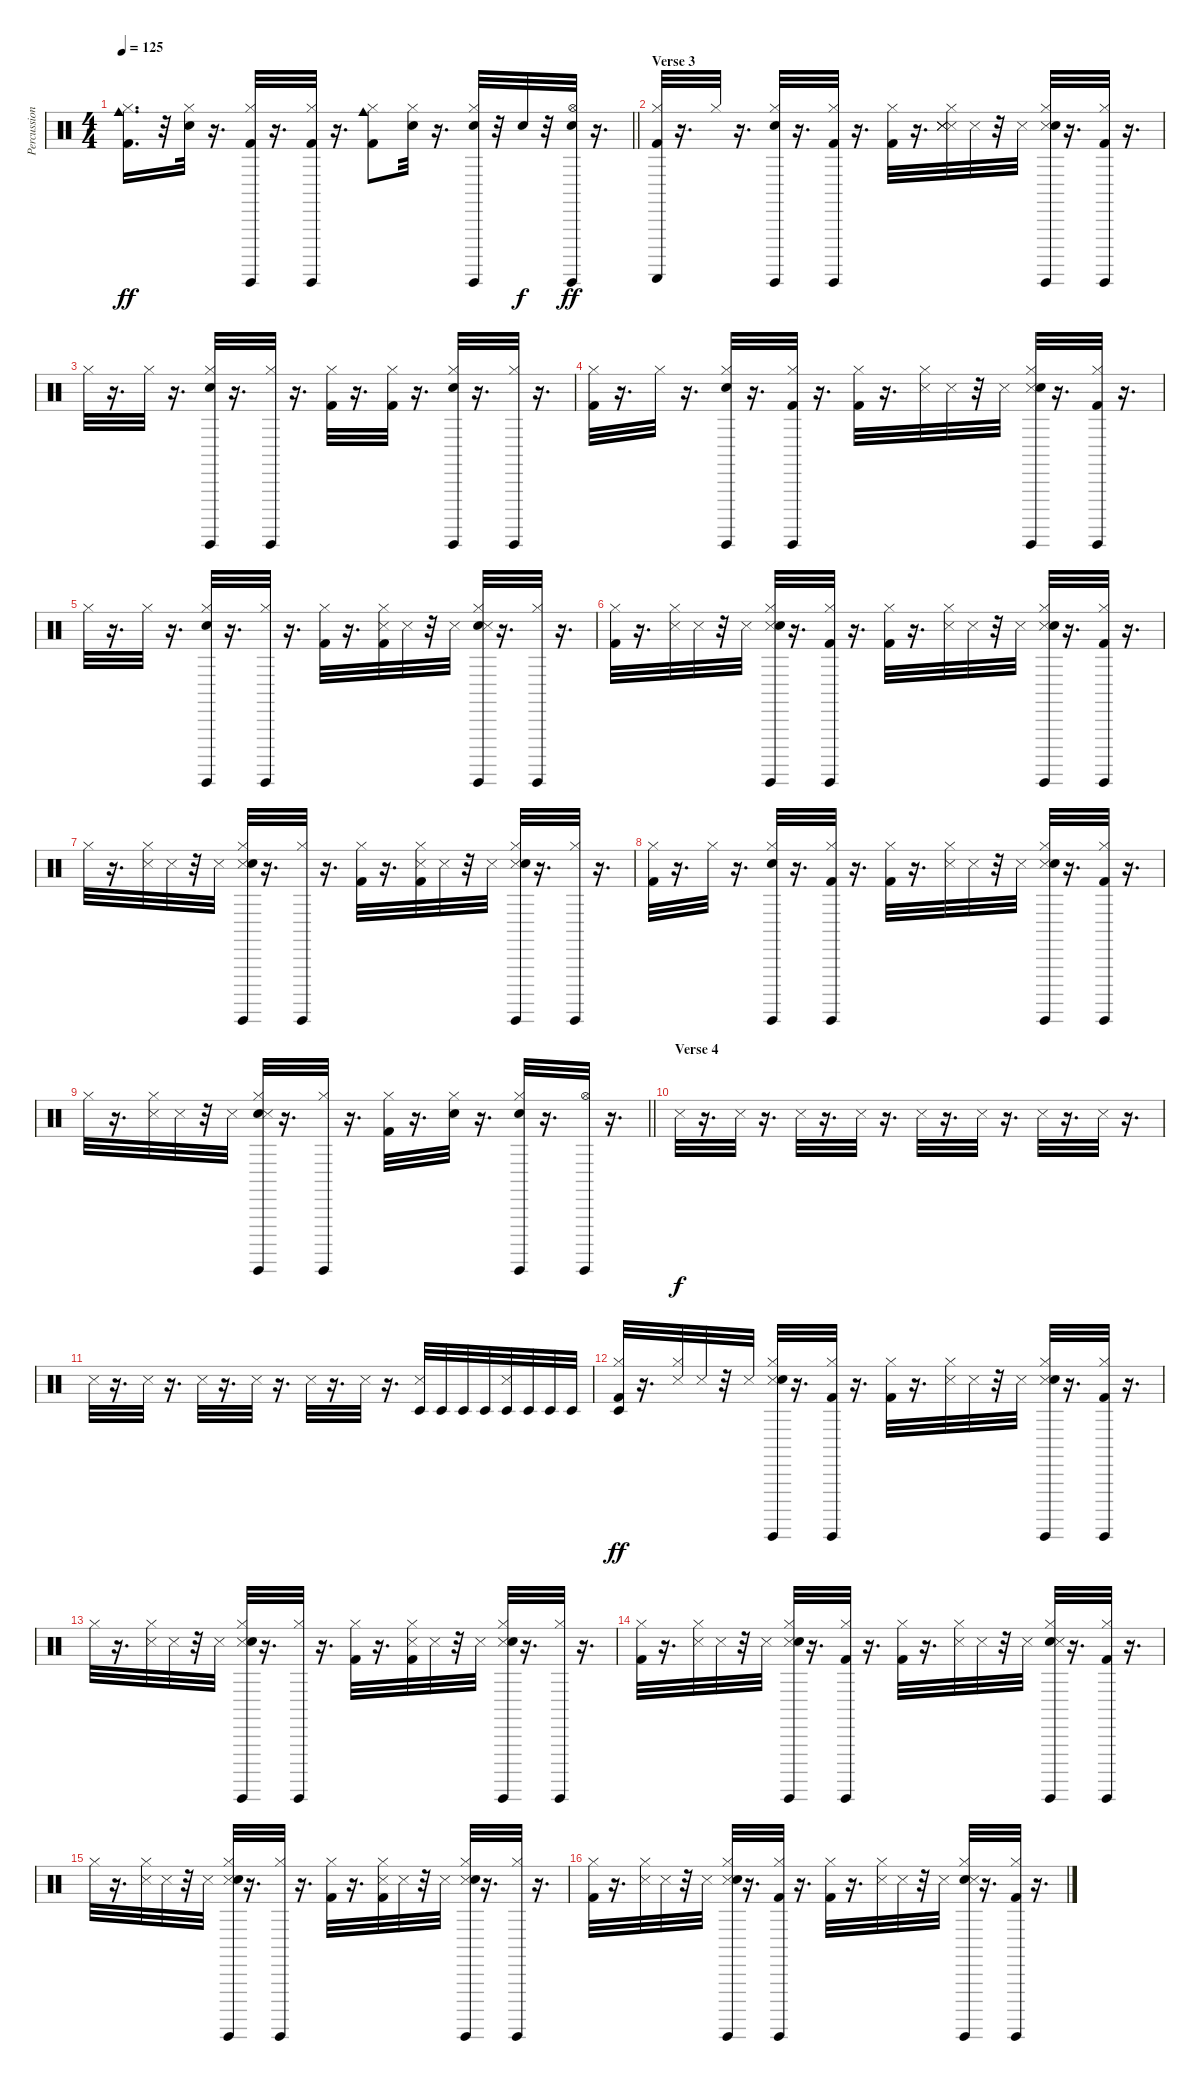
\track ("Percussion" "Percussion") {instrument percussion}
\staff {score}
\articulation defaults
\ts (4 4)
\tempo 125
\clef neutral
\barLineRight lightlight
\ks c
("Kick (hit) 2" "Hi-Hat (closed)" "Cowbell medium (hit)").16{d dy ff} r.32 ("Snare (hit) 2" "Hi-Hat (closed)").32 r.16{d} ("Kick (hit) 2" "Guiro (hit)" "Hi-Hat (closed)").32 r.16{d} ("Hi-Hat (closed)" "Kick (hit) 2" "Guiro (hit)").32 r.16{d} ("Cowbell medium (hit)" "Kick (hit) 2" "Hi-Hat (closed)").8 ("Snare (hit) 2" "Hi-Hat (closed)").32 r.16{d} ("Electric Snare (hit)" "Guiro (hit)" "Hi-Hat (closed)").32 r.32 "Electric Snare (hit)".32{dy f} r.32 ("Electric Snare (hit)" "Hi-Hat (open)" "Guiro (hit)").32{dy ff} r.16{d} |
\section ("" "Verse 3")
("Guiro (scrap-return)" "Hi-Hat (closed)" "Kick (hit) 2").32 r.16{d} "Hi-Hat (closed)".32 r.16{d} ("Guiro (hit)" "Hi-Hat (closed)" "Snare (hit) 2").32 r.16{d} ("Guiro (hit)" "Hi-Hat (closed)" "Kick (hit) 2").32 r.16{d} ("Hi-Hat (closed)" "Kick (hit) 2").32 r.16{d} ("Hi-Hat (closed)" "Snare (side stick) 3" "Snare (side stick) 3" "Snare (side stick) 3" "Snare (side stick) 3").32 "Snare (side stick) 3".32 r.32 "Snare (side stick) 3".32 ("Snare (side stick) 3" "Guiro (hit)" "Hi-Hat (closed)" "Snare (hit) 2").32 r.16{d} ("Guiro (hit)" "Hi-Hat (closed)" "Kick (hit) 2").32 r.16{d} |
"Hi-Hat (closed)".32 r.16{d} "Hi-Hat (closed)".32 r.16{d} ("Snare (hit) 2" "Guiro (hit)" "Hi-Hat (closed)").32 r.16{d} ("Guiro (hit)" "Hi-Hat (closed)").32 r.16{d} ("Hi-Hat (closed)" "Kick (hit) 2").32 r.16{d} ("Hi-Hat (closed)" "Kick (hit) 2").32 r.16{d} ("Guiro (hit)" "Hi-Hat (closed)" "Snare (hit) 2").32 r.16{d} ("Guiro (hit)" "Hi-Hat (closed)").32 r.16{d} |
("Hi-Hat (closed)" "Kick (hit) 2").32 r.16{d} "Hi-Hat (closed)".32 r.16{d} ("Guiro (hit)" "Hi-Hat (closed)" "Snare (hit) 2").32 r.16{d} ("Guiro (hit)" "Hi-Hat (closed)" "Kick (hit) 2").32 r.16{d} ("Hi-Hat (closed)" "Kick (hit) 2").32 r.16{d} ("Hi-Hat (closed)" "Snare (side stick) 3").32 "Snare (side stick) 3".32 r.32 "Snare (side stick) 3".32 ("Guiro (hit)" "Snare (side stick) 3" "Hi-Hat (closed)" "Snare (hit) 2").32 r.16{d} ("Guiro (hit)" "Hi-Hat (closed)" "Kick (hit) 2").32 r.16{d} |
"Hi-Hat (closed)".32 r.16{d} "Hi-Hat (closed)".32 r.16{d} ("Guiro (hit)" "Hi-Hat (closed)" "Snare (hit) 2").32 r.16{d} ("Guiro (hit)" "Hi-Hat (closed)").32 r.16{d} ("Hi-Hat (closed)" "Kick (hit) 2").32 r.16{d} ("Hi-Hat (closed)" "Kick (hit) 2" "Snare (side stick) 3").32 "Snare (side stick) 3".32 r.32 "Snare (side stick) 3".32 ("Snare (hit) 2" "Guiro (hit)" "Hi-Hat (closed)" "Snare (side stick) 3").32 r.16{d} ("Guiro (hit)" "Hi-Hat (closed)").32 r.16{d} |
("Hi-Hat (closed)" "Kick (hit) 2").32 r.16{d} ("Hi-Hat (closed)" "Snare (side stick) 3").32 "Snare (side stick) 3".32 r.32 "Snare (side stick) 3".32 ("Guiro (hit)" "Snare (side stick) 3" "Hi-Hat (closed)" "Snare (hit) 2").32 r.16{d} ("Guiro (hit)" "Hi-Hat (closed)" "Kick (hit) 2").32 r.16{d} ("Hi-Hat (closed)" "Kick (hit) 2").32 r.16{d} ("Snare (side stick) 3" "Hi-Hat (closed)").32 "Snare (side stick) 3".32 r.32 "Snare (side stick) 3".32 ("Snare (side stick) 3" "Guiro (hit)" "Hi-Hat (closed)" "Snare (hit) 2").32 r.16{d} ("Guiro (hit)" "Hi-Hat (closed)" "Kick (hit) 2").32 r.16{d} |
"Hi-Hat (closed)".32 r.16{d} ("Snare (side stick) 3" "Hi-Hat (closed)").32 "Snare (side stick) 3".32 r.32 "Snare (side stick) 3".32 ("Guiro (hit)" "Hi-Hat (closed)" "Snare (side stick) 3" "Snare (hit) 2").32 r.16{d} ("Guiro (hit)" "Hi-Hat (closed)").32 r.16{d} ("Kick (hit) 2" "Hi-Hat (closed)").32 r.16{d} ("Snare (side stick) 3" "Hi-Hat (closed)" "Kick (hit) 2").32 "Snare (side stick) 3".32 r.32 "Snare (side stick) 3".32 ("Guiro (hit)" "Hi-Hat (closed)" "Snare (side stick) 3" "Snare (hit) 2").32 r.16{d} ("Guiro (hit)" "Hi-Hat (closed)").32 r.16{d} |
("Hi-Hat (closed)" "Kick (hit) 2").32 r.16{d} "Hi-Hat (closed)".32 r.16{d} ("Guiro (hit)" "Hi-Hat (closed)" "Snare (hit) 2").32 r.16{d} ("Guiro (hit)" "Hi-Hat (closed)" "Kick (hit) 2").32 r.16{d} ("Hi-Hat (closed)" "Kick (hit) 2").32 r.16{d} ("Hi-Hat (closed)" "Snare (side stick) 3").32 "Snare (side stick) 3".32 r.32 "Snare (side stick) 3".32 ("Guiro (hit)" "Hi-Hat (closed)" "Snare (side stick) 3" "Snare (hit) 2").32 r.16{d} ("Kick (hit) 2" "Guiro (hit)" "Hi-Hat (closed)").32 r.16{d} |
\barLineRight lightlight "Hi-Hat (closed)".32
r.16{d} ("Hi-Hat (closed)" "Snare (side stick) 3").32 "Snare (side stick) 3".32 r.32 "Snare (side stick) 3".32 ("Guiro (hit)" "Hi-Hat (closed)" "Snare (hit) 2" "Snare (side stick) 3").32 r.16{d} ("Guiro (hit)" "Hi-Hat (closed)").32 r.16{d} ("Hi-Hat (closed)" "Kick (hit) 2").32 r.16{d} ("Electric Snare (hit)" "Hi-Hat (closed)").32 r.16{d} ("Hi-Hat (closed)" "Electric Snare (hit)" "Guiro (hit)").32 r.16{d} ("Hi-Hat (open)" "Guiro (hit)").32 r.16{d} |
\section ("" "Verse 4")
"Snare (side stick) 3".32{dy f} r.16{d} "Snare (side stick) 3".32 r.16{d} "Snare (side stick) 3".32 r.16{d} "Snare (side stick) 3".32 r.16{d} "Snare (side stick) 3".32 r.16{d} "Snare (side stick) 3".32 r.16{d} "Snare (side stick) 3".32 r.16{d} "Snare (side stick) 3".32 r.16{d} |
"Snare (side stick) 3".32 r.16{d} "Snare (side stick) 3".32 r.16{d} "Snare (side stick) 3".32 r.16{d} "Snare (side stick) 3".32 r.16{d} "Snare (side stick) 3".32 r.16{d} "Snare (side stick) 3".32 r.16{d} ("Timbale low (hit)" "Snare (side stick) 3").32 "Timbale low (hit)".32 "Timbale low (hit)".32 "Timbale low (hit)".32 ("Timbale low (hit)" "Snare (side stick) 3").32 "Timbale low (hit)".32 "Timbale low (hit)".32 "Timbale low (hit)".32 |
("Timbale low (hit)" "Hi-Hat (closed)" "Kick (hit) 2").32{dy ff} r.16{d} ("Hi-Hat (closed)" "Snare (side stick) 3").32 "Snare (side stick) 3".32 r.32 "Snare (side stick) 3".32 ("Guiro (hit)" "Snare (side stick) 3" "Hi-Hat (closed)" "Snare (hit) 2").32 r.16{d} ("Guiro (hit)" "Hi-Hat (closed)" "Kick (hit) 2").32 r.16{d} ("Hi-Hat (closed)" "Kick (hit) 2").32 r.16{d} ("Snare (side stick) 3" "Hi-Hat (closed)").32 "Snare (side stick) 3".32 r.32 "Snare (side stick) 3".32 ("Snare (side stick) 3" "Guiro (hit)" "Hi-Hat (closed)" "Snare (hit) 2").32 r.16{d} ("Guiro (hit)" "Hi-Hat (closed)" "Kick (hit) 2").32 r.16{d} |
"Hi-Hat (closed)".32 r.16{d} ("Snare (side stick) 3" "Hi-Hat (closed)").32 "Snare (side stick) 3".32 r.32 "Snare (side stick) 3".32 ("Guiro (hit)" "Hi-Hat (closed)" "Snare (side stick) 3" "Snare (hit) 2").32 r.16{d} ("Guiro (hit)" "Hi-Hat (closed)").32 r.16{d} ("Kick (hit) 2" "Hi-Hat (closed)").32 r.16{d} ("Snare (side stick) 3" "Hi-Hat (closed)" "Kick (hit) 2").32 "Snare (side stick) 3".32 r.32 "Snare (side stick) 3".32 ("Guiro (hit)" "Hi-Hat (closed)" "Snare (side stick) 3" "Snare (hit) 2").32 r.16{d} ("Guiro (hit)" "Hi-Hat (closed)").32 r.16{d} |
("Hi-Hat (closed)" "Kick (hit) 2").32 r.16{d} ("Hi-Hat (closed)" "Snare (side stick) 3").32 "Snare (side stick) 3".32 r.32 "Snare (side stick) 3".32 ("Guiro (hit)" "Hi-Hat (closed)" "Snare (side stick) 3" "Snare (hit) 2").32 r.16{d} ("Guiro (hit)" "Hi-Hat (closed)" "Kick (hit) 2").32 r.16{d} ("Hi-Hat (closed)" "Kick (hit) 2").32 r.16{d} ("Snare (side stick) 3" "Hi-Hat (closed)").32 "Snare (side stick) 3".32 r.32 "Snare (side stick) 3".32 ("Snare (hit) 2" "Hi-Hat (closed)" "Guiro (hit)" "Snare (side stick) 3").32 r.16{d} ("Kick (hit) 2" "Guiro (hit)" "Hi-Hat (closed)").32 r.16{d} |
"Hi-Hat (closed)".32 r.16{d} ("Hi-Hat (closed)" "Snare (side stick) 3").32 "Snare (side stick) 3".32 r.32 "Snare (side stick) 3".32 ("Hi-Hat (closed)" "Guiro (hit)" "Snare (side stick) 3" "Snare (hit) 2").32 r.16{d} ("Hi-Hat (closed)" "Guiro (hit)").32 r.16{d} ("Kick (hit) 2" "Hi-Hat (closed)").32 r.16{d} ("Hi-Hat (closed)" "Snare (side stick) 3" "Kick (hit) 2").32 "Snare (side stick) 3".32 r.32 "Snare (side stick) 3".32 ("Hi-Hat (closed)" "Guiro (hit)" "Snare (side stick) 3" "Snare (hit) 2").32 r.16{d} ("Hi-Hat (closed)" "Guiro (hit)").32 r.16{d} |
("Hi-Hat (closed)" "Kick (hit) 2").32 r.16{d} ("Hi-Hat (closed)" "Snare (side stick) 3").32 "Snare (side stick) 3".32 r.32 "Snare (side stick) 3".32 ("Guiro (hit)" "Hi-Hat (closed)" "Snare (side stick) 3" "Snare (hit) 2").32 r.16{d} ("Guiro (hit)" "Hi-Hat (closed)" "Kick (hit) 2").32 r.16{d} ("Hi-Hat (closed)" "Kick (hit) 2").32 r.16{d} ("Snare (side stick) 3" "Hi-Hat (closed)").32 "Snare (side stick) 3".32 r.32 "Snare (side stick) 3".32 ("Snare (hit) 2" "Hi-Hat (closed)" "Guiro (hit)" "Snare (side stick) 3").32 r.16{d} ("Kick (hit) 2" "Guiro (hit)" "Hi-Hat (closed)").32 r.16{d}
